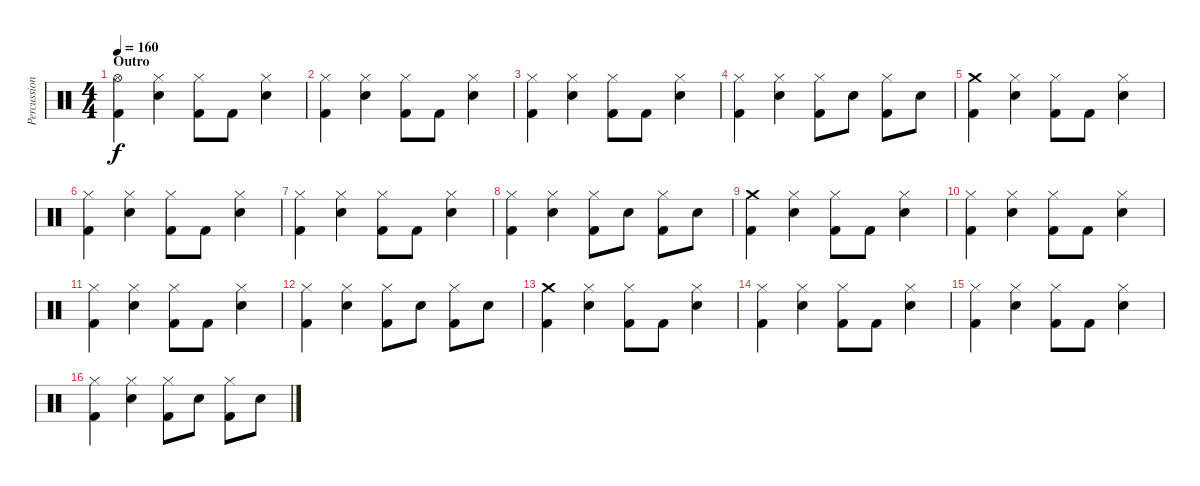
\track ("Percussion" "Percussion") {instrument percussion}
\staff {score}
\articulation defaults
\ts (4 4)
\section ("" "Outro")
\tempo 160
\clef neutral
\ks c
("Hi-Hat (open)" "Kick (hit) 2").4{dy f} ("Hi-Hat (closed)" "Electric Snare (hit)").4 ("Hi-Hat (closed)" "Kick (hit) 2").8 "Kick (hit) 2".8 ("Hi-Hat (closed)" "Electric Snare (hit)").4 |
("Hi-Hat (closed)" "Kick (hit) 2").4 ("Hi-Hat (closed)" "Electric Snare (hit)").4 ("Hi-Hat (closed)" "Kick (hit) 2").8 "Kick (hit) 2".8 ("Hi-Hat (closed)" "Electric Snare (hit)").4 |
("Hi-Hat (closed)" "Kick (hit) 2").4 ("Hi-Hat (closed)" "Electric Snare (hit)").4 ("Hi-Hat (closed)" "Kick (hit) 2").8 "Kick (hit) 2".8 ("Hi-Hat (closed)" "Electric Snare (hit)").4 |
("Hi-Hat (closed)" "Kick (hit) 2").4 ("Hi-Hat (closed)" "Electric Snare (hit)").4 ("Hi-Hat (closed)" "Kick (hit) 2").8 "Electric Snare (hit)".8 ("Hi-Hat (closed)" "Kick (hit) 2").8 "Electric Snare (hit)".8 |
("Crash medium (hit)" "Kick (hit) 2").4 ("Hi-Hat (closed)" "Electric Snare (hit)").4 ("Hi-Hat (closed)" "Kick (hit) 2").8 "Kick (hit) 2".8 ("Hi-Hat (closed)" "Electric Snare (hit)").4 |
("Hi-Hat (closed)" "Kick (hit) 2").4 ("Hi-Hat (closed)" "Electric Snare (hit)").4 ("Hi-Hat (closed)" "Kick (hit) 2").8 "Kick (hit) 2".8 ("Hi-Hat (closed)" "Electric Snare (hit)").4 |
("Hi-Hat (closed)" "Kick (hit) 2").4 ("Hi-Hat (closed)" "Electric Snare (hit)").4 ("Hi-Hat (closed)" "Kick (hit) 2").8 "Kick (hit) 2".8 ("Hi-Hat (closed)" "Electric Snare (hit)").4 |
("Hi-Hat (closed)" "Kick (hit) 2").4 ("Hi-Hat (closed)" "Electric Snare (hit)").4 ("Hi-Hat (closed)" "Kick (hit) 2").8 "Electric Snare (hit)".8 ("Hi-Hat (closed)" "Kick (hit) 2").8 "Electric Snare (hit)".8 |
("Crash medium (hit)" "Kick (hit) 2").4 ("Hi-Hat (closed)" "Electric Snare (hit)").4 ("Hi-Hat (closed)" "Kick (hit) 2").8 "Kick (hit) 2".8 ("Hi-Hat (closed)" "Electric Snare (hit)").4 |
("Hi-Hat (closed)" "Kick (hit) 2").4 ("Hi-Hat (closed)" "Electric Snare (hit)").4 ("Hi-Hat (closed)" "Kick (hit) 2").8 "Kick (hit) 2".8 ("Hi-Hat (closed)" "Electric Snare (hit)").4 |
("Hi-Hat (closed)" "Kick (hit) 2").4 ("Hi-Hat (closed)" "Electric Snare (hit)").4 ("Hi-Hat (closed)" "Kick (hit) 2").8 "Kick (hit) 2".8 ("Hi-Hat (closed)" "Electric Snare (hit)").4 |
("Hi-Hat (closed)" "Kick (hit) 2").4 ("Hi-Hat (closed)" "Electric Snare (hit)").4 ("Hi-Hat (closed)" "Kick (hit) 2").8 "Electric Snare (hit)".8 ("Hi-Hat (closed)" "Kick (hit) 2").8 "Electric Snare (hit)".8 |
("Crash medium (hit)" "Kick (hit) 2").4 ("Hi-Hat (closed)" "Electric Snare (hit)").4 ("Hi-Hat (closed)" "Kick (hit) 2").8 "Kick (hit) 2".8 ("Hi-Hat (closed)" "Electric Snare (hit)").4 |
("Hi-Hat (closed)" "Kick (hit) 2").4 ("Hi-Hat (closed)" "Electric Snare (hit)").4 ("Hi-Hat (closed)" "Kick (hit) 2").8 "Kick (hit) 2".8 ("Hi-Hat (closed)" "Electric Snare (hit)").4 |
("Hi-Hat (closed)" "Kick (hit) 2").4 ("Hi-Hat (closed)" "Electric Snare (hit)").4 ("Hi-Hat (closed)" "Kick (hit) 2").8 "Kick (hit) 2".8 ("Hi-Hat (closed)" "Electric Snare (hit)").4 |
("Hi-Hat (closed)" "Kick (hit) 2").4 ("Hi-Hat (closed)" "Electric Snare (hit)").4 ("Hi-Hat (closed)" "Kick (hit) 2").8 "Electric Snare (hit)".8 ("Hi-Hat (closed)" "Kick (hit) 2").8 "Electric Snare (hit)".8
